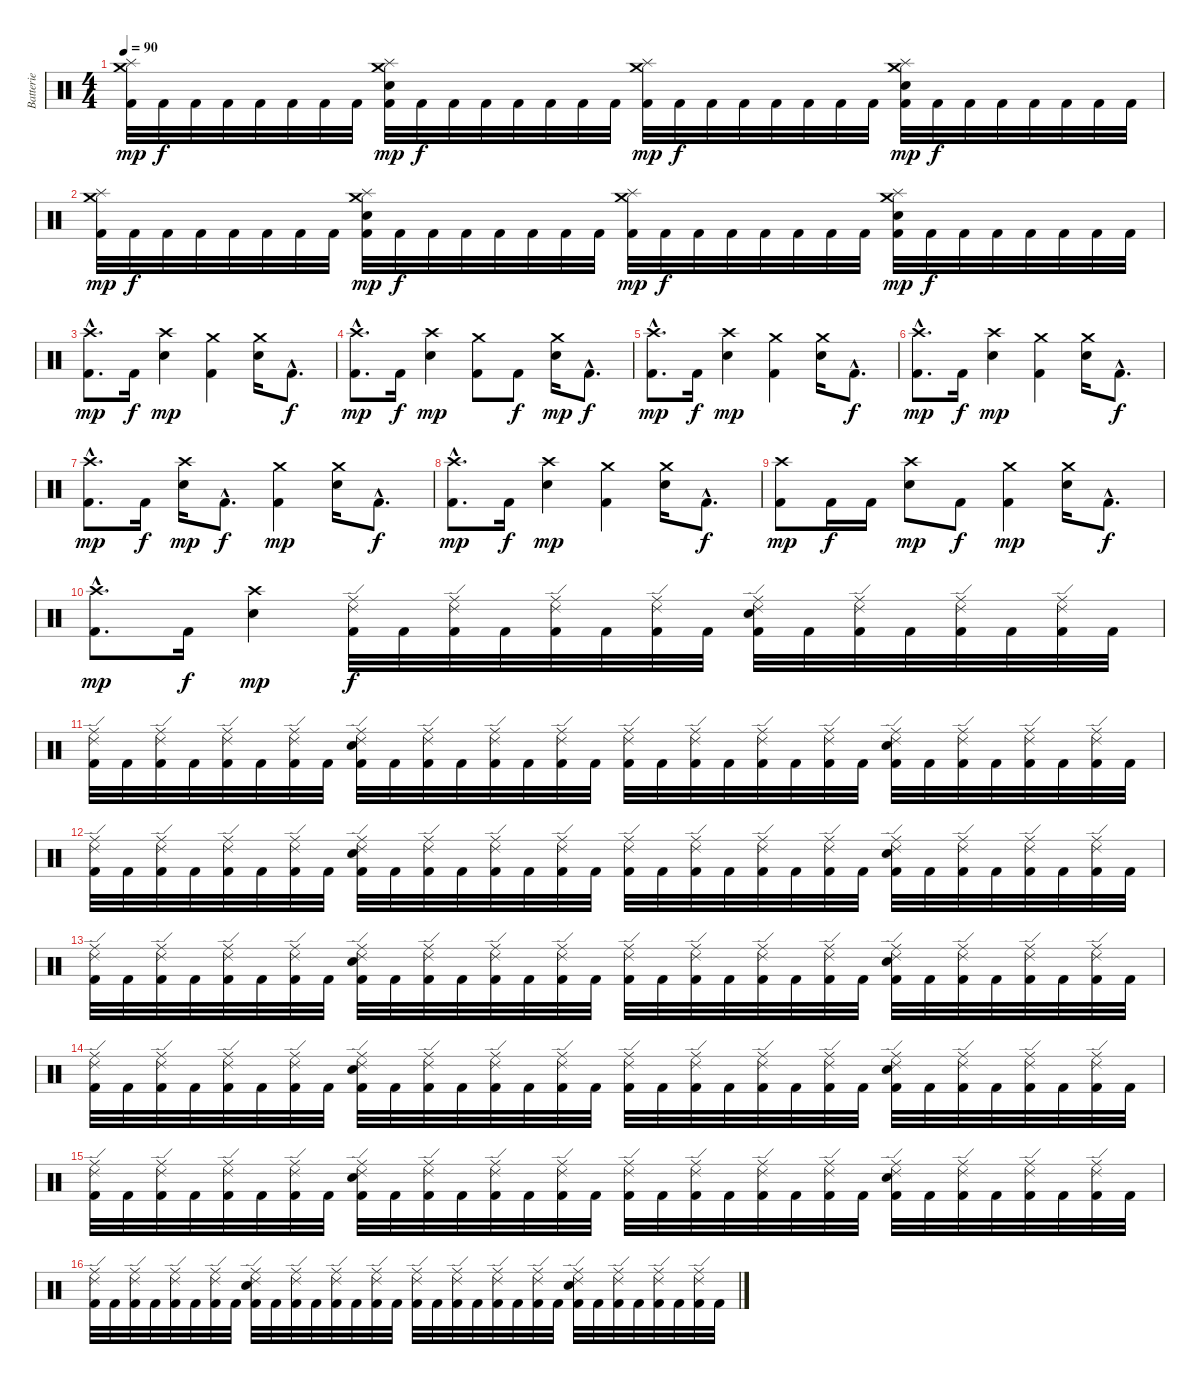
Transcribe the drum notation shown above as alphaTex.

\track ("Batterie" "Batterie") {instrument percussion}
\staff {score}
\articulation defaults
\ts (4 4)
\tempo 90
\clef neutral
\ks c
("Splash (hit)" "Crash medium (hit)" "Kick (hit) 2").32{dy mp} "Kick (hit) 2".32{dy f} "Kick (hit) 2".32 "Kick (hit) 2".32 "Kick (hit) 2".32 "Kick (hit) 2".32 "Kick (hit) 2".32 "Kick (hit) 2".32 ("Splash (hit)" "Crash medium (hit)" "Electric Snare (hit)" "Kick (hit) 2").32{dy mp} "Kick (hit) 2".32{dy f} "Kick (hit) 2".32 "Kick (hit) 2".32 "Kick (hit) 2".32 "Kick (hit) 2".32 "Kick (hit) 2".32 "Kick (hit) 2".32 ("Splash (hit)" "Crash medium (hit)" "Kick (hit) 2").32{dy mp} "Kick (hit) 2".32{dy f} "Kick (hit) 2".32 "Kick (hit) 2".32 "Kick (hit) 2".32 "Kick (hit) 2".32 "Kick (hit) 2".32 "Kick (hit) 2".32 ("Splash (hit)" "Crash medium (hit)" "Electric Snare (hit)" "Kick (hit) 2").32{dy mp} "Kick (hit) 2".32{dy f} "Kick (hit) 2".32 "Kick (hit) 2".32 "Kick (hit) 2".32 "Kick (hit) 2".32 "Kick (hit) 2".32 "Kick (hit) 2".32 |
("Splash (hit)" "Crash medium (hit)" "Kick (hit) 2").32{dy mp} "Kick (hit) 2".32{dy f} "Kick (hit) 2".32 "Kick (hit) 2".32 "Kick (hit) 2".32 "Kick (hit) 2".32 "Kick (hit) 2".32 "Kick (hit) 2".32 ("Splash (hit)" "Crash medium (hit)" "Electric Snare (hit)" "Kick (hit) 2").32{dy mp} "Kick (hit) 2".32{dy f} "Kick (hit) 2".32 "Kick (hit) 2".32 "Kick (hit) 2".32 "Kick (hit) 2".32 "Kick (hit) 2".32 "Kick (hit) 2".32 ("Splash (hit)" "Crash medium (hit)" "Kick (hit) 2").32{dy mp} "Kick (hit) 2".32{dy f} "Kick (hit) 2".32 "Kick (hit) 2".32 "Kick (hit) 2".32 "Kick (hit) 2".32 "Kick (hit) 2".32 "Kick (hit) 2".32 ("Splash (hit)" "Crash medium (hit)" "Electric Snare (hit)" "Kick (hit) 2").32{dy mp} "Kick (hit) 2".32{dy f} "Kick (hit) 2".32 "Kick (hit) 2".32 "Kick (hit) 2".32 "Kick (hit) 2".32 "Kick (hit) 2".32 "Kick (hit) 2".32 |
("Crash high (hit)"{hac} "Kick (hit) 2"{hac}).8{d dy mp} "Kick (hit) 2".16{dy f} ("Crash high (hit)" "Electric Snare (hit)").4{dy mp} ("Crash medium (hit)" "Kick (hit) 2").4 ("Crash medium (hit)" "Electric Snare (hit)").16 "Kick (hit) 2"{hac}.8{d dy f} |
("Crash high (hit)"{hac} "Kick (hit) 2"{hac}).8{d dy mp} "Kick (hit) 2".16{dy f} ("Crash high (hit)" "Electric Snare (hit)").4{dy mp} ("Crash medium (hit)" "Kick (hit) 2").8 "Kick (hit) 2".8{dy f} ("Crash medium (hit)" "Electric Snare (hit)").16{dy mp} "Kick (hit) 2"{hac}.8{d dy f} |
("Crash high (hit)"{hac} "Kick (hit) 2"{hac}).8{d dy mp} "Kick (hit) 2".16{dy f} ("Crash high (hit)" "Electric Snare (hit)").4{dy mp} ("Crash medium (hit)" "Kick (hit) 2").4 ("Crash medium (hit)" "Electric Snare (hit)").16 "Kick (hit) 2"{hac}.8{d dy f} |
("Crash high (hit)"{hac} "Kick (hit) 2"{hac}).8{d dy mp} "Kick (hit) 2".16{dy f} ("Crash high (hit)" "Electric Snare (hit)").4{dy mp} ("Crash medium (hit)" "Kick (hit) 2").4 ("Crash medium (hit)" "Electric Snare (hit)").16 "Kick (hit) 2"{hac}.8{d dy f} |
("Crash high (hit)"{hac} "Kick (hit) 2"{hac}).8{d dy mp} "Kick (hit) 2".16{dy f} ("Crash high (hit)" "Electric Snare (hit)").16{dy mp} "Kick (hit) 2"{hac}.8{d dy f} ("Crash medium (hit)" "Kick (hit) 2").4{dy mp} ("Crash medium (hit)" "Electric Snare (hit)").16 "Kick (hit) 2"{hac}.8{d dy f} |
("Crash high (hit)"{hac} "Kick (hit) 2"{hac}).8{d dy mp} "Kick (hit) 2".16{dy f} ("Crash high (hit)" "Electric Snare (hit)").4{dy mp} ("Crash medium (hit)" "Kick (hit) 2").4 ("Crash medium (hit)" "Electric Snare (hit)").16 "Kick (hit) 2"{hac}.8{d dy f} |
("Crash high (hit)" "Kick (hit) 2").8{dy mp} "Kick (hit) 2".16{dy f} "Kick (hit) 2".16 ("Crash high (hit)" "Electric Snare (hit)").8{dy mp} "Kick (hit) 2".8{dy f} ("Crash medium (hit)" "Kick (hit) 2").4{dy mp} ("Crash medium (hit)" "Electric Snare (hit)").16 "Kick (hit) 2"{hac}.8{d dy f} |
("Crash high (hit)"{hac} "Kick (hit) 2"{hac}).8{d dy mp} "Kick (hit) 2".16{dy f} ("Crash high (hit)" "Electric Snare (hit)").4{dy mp} ("Ride (edge) 2" "Ride (middle)" "Kick (hit) 2").32{dy f} "Kick (hit) 2".32 ("Ride (edge) 2" "Ride (middle)" "Kick (hit) 2").32 "Kick (hit) 2".32 ("Ride (edge) 2" "Ride (middle)" "Kick (hit) 2").32 "Kick (hit) 2".32 ("Ride (edge) 2" "Ride (middle)" "Kick (hit) 2").32 "Kick (hit) 2".32 ("Ride (edge) 2" "Ride (middle)" "Electric Snare (hit)" "Kick (hit) 2").32 "Kick (hit) 2".32 ("Ride (edge) 2" "Ride (middle)" "Kick (hit) 2").32 "Kick (hit) 2".32 ("Ride (edge) 2" "Ride (middle)" "Kick (hit) 2").32 "Kick (hit) 2".32 ("Ride (edge) 2" "Ride (middle)" "Kick (hit) 2").32 "Kick (hit) 2".32 |
("Ride (edge) 2" "Ride (middle)" "Kick (hit) 2").32 "Kick (hit) 2".32 ("Ride (edge) 2" "Ride (middle)" "Kick (hit) 2").32 "Kick (hit) 2".32 ("Ride (edge) 2" "Ride (middle)" "Kick (hit) 2").32 "Kick (hit) 2".32 ("Ride (edge) 2" "Ride (middle)" "Kick (hit) 2").32 "Kick (hit) 2".32 ("Ride (edge) 2" "Ride (middle)" "Electric Snare (hit)" "Kick (hit) 2").32 "Kick (hit) 2".32 ("Ride (edge) 2" "Ride (middle)" "Kick (hit) 2").32 "Kick (hit) 2".32 ("Ride (edge) 2" "Ride (middle)" "Kick (hit) 2").32 "Kick (hit) 2".32 ("Ride (edge) 2" "Ride (middle)" "Kick (hit) 2").32 "Kick (hit) 2".32 ("Ride (edge) 2" "Ride (middle)" "Kick (hit) 2").32 "Kick (hit) 2".32 ("Ride (edge) 2" "Ride (middle)" "Kick (hit) 2").32 "Kick (hit) 2".32 ("Ride (edge) 2" "Ride (middle)" "Kick (hit) 2").32 "Kick (hit) 2".32 ("Ride (edge) 2" "Ride (middle)" "Kick (hit) 2").32 "Kick (hit) 2".32 ("Ride (edge) 2" "Ride (middle)" "Electric Snare (hit)" "Kick (hit) 2").32 "Kick (hit) 2".32 ("Ride (edge) 2" "Ride (middle)" "Kick (hit) 2").32 "Kick (hit) 2".32 ("Ride (edge) 2" "Ride (middle)" "Kick (hit) 2").32 "Kick (hit) 2".32 ("Ride (edge) 2" "Ride (middle)" "Kick (hit) 2").32 "Kick (hit) 2".32 |
("Ride (edge) 2" "Ride (middle)" "Kick (hit) 2").32 "Kick (hit) 2".32 ("Ride (edge) 2" "Ride (middle)" "Kick (hit) 2").32 "Kick (hit) 2".32 ("Ride (edge) 2" "Ride (middle)" "Kick (hit) 2").32 "Kick (hit) 2".32 ("Ride (edge) 2" "Ride (middle)" "Kick (hit) 2").32 "Kick (hit) 2".32 ("Ride (edge) 2" "Ride (middle)" "Electric Snare (hit)" "Kick (hit) 2").32 "Kick (hit) 2".32 ("Ride (edge) 2" "Ride (middle)" "Kick (hit) 2").32 "Kick (hit) 2".32 ("Ride (edge) 2" "Ride (middle)" "Kick (hit) 2").32 "Kick (hit) 2".32 ("Ride (edge) 2" "Ride (middle)" "Kick (hit) 2").32 "Kick (hit) 2".32 ("Ride (edge) 2" "Ride (middle)" "Kick (hit) 2").32 "Kick (hit) 2".32 ("Ride (edge) 2" "Ride (middle)" "Kick (hit) 2").32 "Kick (hit) 2".32 ("Ride (edge) 2" "Ride (middle)" "Kick (hit) 2").32 "Kick (hit) 2".32 ("Ride (edge) 2" "Ride (middle)" "Kick (hit) 2").32 "Kick (hit) 2".32 ("Ride (edge) 2" "Ride (middle)" "Electric Snare (hit)" "Kick (hit) 2").32 "Kick (hit) 2".32 ("Ride (edge) 2" "Ride (middle)" "Kick (hit) 2").32 "Kick (hit) 2".32 ("Ride (edge) 2" "Ride (middle)" "Kick (hit) 2").32 "Kick (hit) 2".32 ("Ride (edge) 2" "Ride (middle)" "Kick (hit) 2").32 "Kick (hit) 2".32 |
("Ride (edge) 2" "Ride (middle)" "Kick (hit) 2").32 "Kick (hit) 2".32 ("Ride (edge) 2" "Ride (middle)" "Kick (hit) 2").32 "Kick (hit) 2".32 ("Ride (edge) 2" "Ride (middle)" "Kick (hit) 2").32 "Kick (hit) 2".32 ("Ride (edge) 2" "Ride (middle)" "Kick (hit) 2").32 "Kick (hit) 2".32 ("Ride (edge) 2" "Ride (middle)" "Electric Snare (hit)" "Kick (hit) 2").32 "Kick (hit) 2".32 ("Ride (edge) 2" "Ride (middle)" "Kick (hit) 2").32 "Kick (hit) 2".32 ("Ride (edge) 2" "Ride (middle)" "Kick (hit) 2").32 "Kick (hit) 2".32 ("Ride (edge) 2" "Ride (middle)" "Kick (hit) 2").32 "Kick (hit) 2".32 ("Ride (edge) 2" "Ride (middle)" "Kick (hit) 2").32 "Kick (hit) 2".32 ("Ride (edge) 2" "Ride (middle)" "Kick (hit) 2").32 "Kick (hit) 2".32 ("Ride (edge) 2" "Ride (middle)" "Kick (hit) 2").32 "Kick (hit) 2".32 ("Ride (edge) 2" "Ride (middle)" "Kick (hit) 2").32 "Kick (hit) 2".32 ("Ride (edge) 2" "Ride (middle)" "Electric Snare (hit)" "Kick (hit) 2").32 "Kick (hit) 2".32 ("Ride (edge) 2" "Ride (middle)" "Kick (hit) 2").32 "Kick (hit) 2".32 ("Ride (edge) 2" "Ride (middle)" "Kick (hit) 2").32 "Kick (hit) 2".32 ("Ride (edge) 2" "Ride (middle)" "Kick (hit) 2").32 "Kick (hit) 2".32 |
("Ride (edge) 2" "Ride (middle)" "Kick (hit) 2").32 "Kick (hit) 2".32 ("Ride (edge) 2" "Ride (middle)" "Kick (hit) 2").32 "Kick (hit) 2".32 ("Ride (edge) 2" "Ride (middle)" "Kick (hit) 2").32 "Kick (hit) 2".32 ("Ride (edge) 2" "Ride (middle)" "Kick (hit) 2").32 "Kick (hit) 2".32 ("Ride (edge) 2" "Ride (middle)" "Electric Snare (hit)" "Kick (hit) 2").32 "Kick (hit) 2".32 ("Ride (edge) 2" "Ride (middle)" "Kick (hit) 2").32 "Kick (hit) 2".32 ("Ride (edge) 2" "Ride (middle)" "Kick (hit) 2").32 "Kick (hit) 2".32 ("Ride (edge) 2" "Ride (middle)" "Kick (hit) 2").32 "Kick (hit) 2".32 ("Ride (edge) 2" "Ride (middle)" "Kick (hit) 2").32 "Kick (hit) 2".32 ("Ride (edge) 2" "Ride (middle)" "Kick (hit) 2").32 "Kick (hit) 2".32 ("Ride (edge) 2" "Ride (middle)" "Kick (hit) 2").32 "Kick (hit) 2".32 ("Ride (edge) 2" "Ride (middle)" "Kick (hit) 2").32 "Kick (hit) 2".32 ("Ride (edge) 2" "Ride (middle)" "Electric Snare (hit)" "Kick (hit) 2").32 "Kick (hit) 2".32 ("Ride (edge) 2" "Ride (middle)" "Kick (hit) 2").32 "Kick (hit) 2".32 ("Ride (edge) 2" "Ride (middle)" "Kick (hit) 2").32 "Kick (hit) 2".32 ("Ride (edge) 2" "Ride (middle)" "Kick (hit) 2").32 "Kick (hit) 2".32 |
("Ride (edge) 2" "Ride (middle)" "Kick (hit) 2").32 "Kick (hit) 2".32 ("Ride (edge) 2" "Ride (middle)" "Kick (hit) 2").32 "Kick (hit) 2".32 ("Ride (edge) 2" "Ride (middle)" "Kick (hit) 2").32 "Kick (hit) 2".32 ("Ride (edge) 2" "Ride (middle)" "Kick (hit) 2").32 "Kick (hit) 2".32 ("Ride (edge) 2" "Ride (middle)" "Electric Snare (hit)" "Kick (hit) 2").32 "Kick (hit) 2".32 ("Ride (edge) 2" "Ride (middle)" "Kick (hit) 2").32 "Kick (hit) 2".32 ("Ride (edge) 2" "Ride (middle)" "Kick (hit) 2").32 "Kick (hit) 2".32 ("Ride (edge) 2" "Ride (middle)" "Kick (hit) 2").32 "Kick (hit) 2".32 ("Ride (edge) 2" "Ride (middle)" "Kick (hit) 2").32 "Kick (hit) 2".32 ("Ride (edge) 2" "Ride (middle)" "Kick (hit) 2").32 "Kick (hit) 2".32 ("Ride (edge) 2" "Ride (middle)" "Kick (hit) 2").32 "Kick (hit) 2".32 ("Ride (edge) 2" "Ride (middle)" "Kick (hit) 2").32 "Kick (hit) 2".32 ("Ride (edge) 2" "Ride (middle)" "Electric Snare (hit)" "Kick (hit) 2").32 "Kick (hit) 2".32 ("Ride (edge) 2" "Ride (middle)" "Kick (hit) 2").32 "Kick (hit) 2".32 ("Ride (edge) 2" "Ride (middle)" "Kick (hit) 2").32 "Kick (hit) 2".32 ("Ride (edge) 2" "Ride (middle)" "Kick (hit) 2").32 "Kick (hit) 2".32 |
("Ride (edge) 2" "Ride (middle)" "Kick (hit) 2").32 "Kick (hit) 2".32 ("Ride (edge) 2" "Ride (middle)" "Kick (hit) 2").32 "Kick (hit) 2".32 ("Ride (edge) 2" "Ride (middle)" "Kick (hit) 2").32 "Kick (hit) 2".32 ("Ride (edge) 2" "Ride (middle)" "Kick (hit) 2").32 "Kick (hit) 2".32 ("Ride (edge) 2" "Ride (middle)" "Electric Snare (hit)" "Kick (hit) 2").32 "Kick (hit) 2".32 ("Ride (edge) 2" "Ride (middle)" "Kick (hit) 2").32 "Kick (hit) 2".32 ("Ride (edge) 2" "Ride (middle)" "Kick (hit) 2").32 "Kick (hit) 2".32 ("Ride (edge) 2" "Ride (middle)" "Kick (hit) 2").32 "Kick (hit) 2".32 ("Ride (edge) 2" "Ride (middle)" "Kick (hit) 2").32 "Kick (hit) 2".32 ("Ride (edge) 2" "Ride (middle)" "Kick (hit) 2").32 "Kick (hit) 2".32 ("Ride (edge) 2" "Ride (middle)" "Kick (hit) 2").32 "Kick (hit) 2".32 ("Ride (edge) 2" "Ride (middle)" "Kick (hit) 2").32 "Kick (hit) 2".32 ("Ride (edge) 2" "Ride (middle)" "Electric Snare (hit)" "Kick (hit) 2").32 "Kick (hit) 2".32 ("Ride (edge) 2" "Ride (middle)" "Kick (hit) 2").32 "Kick (hit) 2".32 ("Ride (edge) 2" "Ride (middle)" "Kick (hit) 2").32 "Kick (hit) 2".32 ("Ride (edge) 2" "Ride (middle)" "Kick (hit) 2").32 "Kick (hit) 2".32
